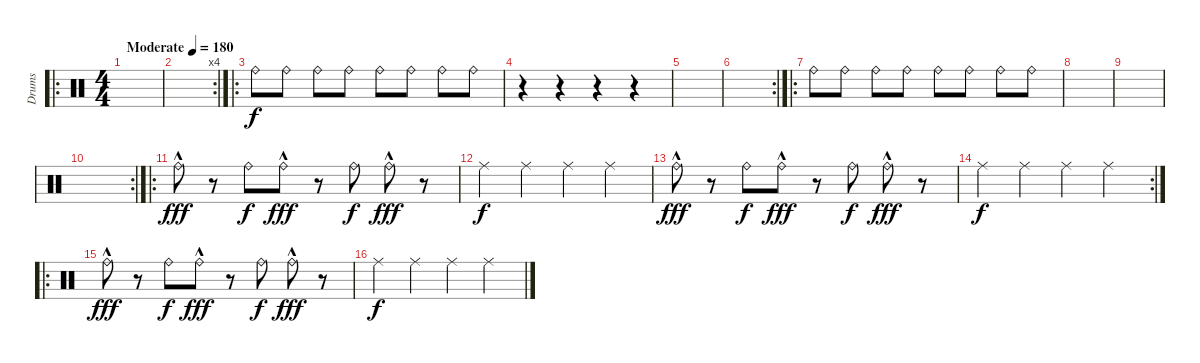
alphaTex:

\track ("Drums" "Drums") {instrument percussion}
\staff {score}
\articulation defaults
\ro
\ts (4 4)
\tempo (180 "Moderate")
\clef neutral
\ks c
|
\rc 4
|
\ro "Ride (bell)".8 "Ride (bell)".8 "Ride (bell)".8 "Ride (bell)".8 "Ride (bell)".8 "Ride (bell)".8 "Ride (bell)".8 "Ride (bell)".8
|
r.4 r.4 r.4 r.4 |
|
\rc 2
|
\ro "Ride (bell)".8 "Ride (bell)".8 "Ride (bell)".8 "Ride (bell)".8 "Ride (bell)".8 "Ride (bell)".8 "Ride (bell)".8 "Ride (bell)".8
|
|
|
\rc 2
|
\ro "Ride (bell)"{hac}.8{dy fff}
r.8 "Ride (bell)".8{dy f} "Ride (bell)"{hac}.8{dy fff} r.8 "Ride (bell)".8{dy f} "Ride (bell)"{hac}.8{dy fff} r.8 |
"Ride (middle)".4{dy f} "Ride (middle)".4 "Ride (middle)".4 "Ride (middle)".4 |
"Ride (bell)"{hac}.8{dy fff} r.8 "Ride (bell)".8{dy f} "Ride (bell)"{hac}.8{dy fff} r.8 "Ride (bell)".8{dy f} "Ride (bell)"{hac}.8{dy fff} r.8 |
\rc 2 "Ride (middle)".4{dy f} "Ride (middle)".4 "Ride (middle)".4 "Ride (middle)".4
|
\ro "Ride (bell)"{hac}.8{dy fff}
r.8 "Ride (bell)".8{dy f} "Ride (bell)"{hac}.8{dy fff} r.8 "Ride (bell)".8{dy f} "Ride (bell)"{hac}.8{dy fff} r.8 |
"Ride (middle)".4{dy f} "Ride (middle)".4 "Ride (middle)".4 "Ride (middle)".4
